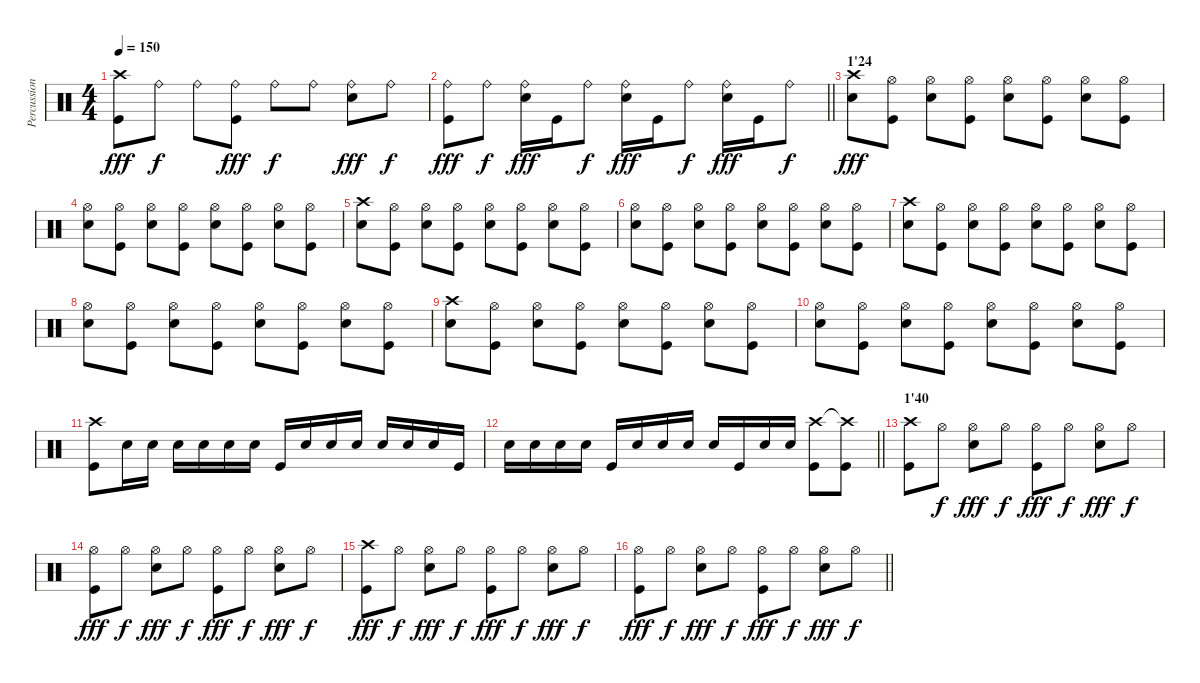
\track ("Percussions" "Percussion") {instrument percussion}
\staff {score}
\articulation defaults
\ts (4 4)
\tempo 150
\clef neutral
\ks c
("Crash high (hit)" "Kick (hit)").8{dy fff} "Ride (bell)".8{dy f} "Ride (bell)".8 ("Ride (bell)" "Kick (hit)").8{dy fff} "Ride (bell)".8{dy f} "Ride (bell)".8 ("Ride (bell)" "Electric Snare (hit)").8{dy fff} "Ride (bell)".8{dy f} |
\barLineRight lightlight
("Ride (bell)" "Kick (hit)").8{dy fff} "Ride (bell)".8{dy f} ("Ride (bell)" "Electric Snare (hit)").16{dy fff} "Kick (hit)".16 "Ride (bell)".8{dy f} ("Ride (bell)" "Electric Snare (hit)").16{dy fff} "Kick (hit)".16 "Ride (bell)".8{dy f} ("Ride (bell)" "Electric Snare (hit)").16{dy fff} "Kick (hit)".16 "Ride (bell)".8{dy f} |
\section ("" "1'24")
("Crash high (hit)" "Electric Snare (hit)").8{dy fff} ("Hi-Hat (open)" "Kick (hit)").8 ("Hi-Hat (open)" "Electric Snare (hit)").8 ("Hi-Hat (open)" "Kick (hit)").8 ("Hi-Hat (open)" "Electric Snare (hit)").8 ("Hi-Hat (open)" "Kick (hit)").8 ("Hi-Hat (open)" "Electric Snare (hit)").8 ("Hi-Hat (open)" "Kick (hit)").8 |
("Hi-Hat (open)" "Electric Snare (hit)").8 ("Hi-Hat (open)" "Kick (hit)").8 ("Hi-Hat (open)" "Electric Snare (hit)").8 ("Hi-Hat (open)" "Kick (hit)").8 ("Hi-Hat (open)" "Electric Snare (hit)").8 ("Hi-Hat (open)" "Kick (hit)").8 ("Hi-Hat (open)" "Electric Snare (hit)").8 ("Hi-Hat (open)" "Kick (hit)").8 |
("Crash high (hit)" "Electric Snare (hit)").8 ("Hi-Hat (open)" "Kick (hit)").8 ("Hi-Hat (open)" "Electric Snare (hit)").8 ("Hi-Hat (open)" "Kick (hit)").8 ("Hi-Hat (open)" "Electric Snare (hit)").8 ("Hi-Hat (open)" "Kick (hit)").8 ("Hi-Hat (open)" "Electric Snare (hit)").8 ("Hi-Hat (open)" "Kick (hit)").8 |
("Hi-Hat (open)" "Electric Snare (hit)").8 ("Hi-Hat (open)" "Kick (hit)").8 ("Hi-Hat (open)" "Electric Snare (hit)").8 ("Hi-Hat (open)" "Kick (hit)").8 ("Hi-Hat (open)" "Electric Snare (hit)").8 ("Hi-Hat (open)" "Kick (hit)").8 ("Hi-Hat (open)" "Electric Snare (hit)").8 ("Hi-Hat (open)" "Kick (hit)").8 |
("Crash high (hit)" "Electric Snare (hit)").8 ("Hi-Hat (open)" "Kick (hit)").8 ("Hi-Hat (open)" "Electric Snare (hit)").8 ("Hi-Hat (open)" "Kick (hit)").8 ("Hi-Hat (open)" "Electric Snare (hit)").8 ("Hi-Hat (open)" "Kick (hit)").8 ("Hi-Hat (open)" "Electric Snare (hit)").8 ("Hi-Hat (open)" "Kick (hit)").8 |
("Hi-Hat (open)" "Electric Snare (hit)").8 ("Hi-Hat (open)" "Kick (hit)").8 ("Hi-Hat (open)" "Electric Snare (hit)").8 ("Hi-Hat (open)" "Kick (hit)").8 ("Hi-Hat (open)" "Electric Snare (hit)").8 ("Hi-Hat (open)" "Kick (hit)").8 ("Hi-Hat (open)" "Electric Snare (hit)").8 ("Hi-Hat (open)" "Kick (hit)").8 |
("Crash high (hit)" "Electric Snare (hit)").8 ("Hi-Hat (open)" "Kick (hit)").8 ("Hi-Hat (open)" "Electric Snare (hit)").8 ("Hi-Hat (open)" "Kick (hit)").8 ("Hi-Hat (open)" "Electric Snare (hit)").8 ("Hi-Hat (open)" "Kick (hit)").8 ("Hi-Hat (open)" "Electric Snare (hit)").8 ("Hi-Hat (open)" "Kick (hit)").8 |
("Hi-Hat (open)" "Electric Snare (hit)").8 ("Hi-Hat (open)" "Kick (hit)").8 ("Hi-Hat (open)" "Electric Snare (hit)").8 ("Hi-Hat (open)" "Kick (hit)").8 ("Hi-Hat (open)" "Electric Snare (hit)").8 ("Hi-Hat (open)" "Kick (hit)").8 ("Hi-Hat (open)" "Electric Snare (hit)").8 ("Hi-Hat (open)" "Kick (hit)").8 |
("Crash high (hit)" "Kick (hit)").8 "Electric Snare (hit)".16 "Electric Snare (hit)".16 "Electric Snare (hit)".16 "Electric Snare (hit)".16 "Electric Snare (hit)".16 "Electric Snare (hit)".16 "Kick (hit)".16 "Electric Snare (hit)".16 "Electric Snare (hit)".16 "Electric Snare (hit)".16 "Electric Snare (hit)".16 "Electric Snare (hit)".16 "Electric Snare (hit)".16 "Kick (hit)".16 |
\barLineRight lightlight "Electric Snare (hit)".16 "Electric Snare (hit)".16 "Electric Snare (hit)".16 "Electric Snare (hit)".16 "Kick (hit)".16 "Electric Snare (hit)".16 "Electric Snare (hit)".16 "Electric Snare (hit)".16 "Electric Snare (hit)".16 "Kick (hit)".16 "Electric Snare (hit)".16 "Electric Snare (hit)".16
("Crash high (hit)" "Kick (hit)").8 ("Crash high (hit)"{t} "Kick (hit)").8 |
\section ("" "1'40")
("Crash high (hit)" "Kick (hit)").8 "Hi-Hat (open)".8{dy f} ("Hi-Hat (open)" "Electric Snare (hit)").8{dy fff} "Hi-Hat (open)".8{dy f} ("Hi-Hat (open)" "Kick (hit)").8{dy fff} "Hi-Hat (open)".8{dy f} ("Hi-Hat (open)" "Electric Snare (hit)").8{dy fff} "Hi-Hat (open)".8{dy f} |
("Hi-Hat (open)" "Kick (hit)").8{dy fff} "Hi-Hat (open)".8{dy f} ("Hi-Hat (open)" "Electric Snare (hit)").8{dy fff} "Hi-Hat (open)".8{dy f} ("Hi-Hat (open)" "Kick (hit)").8{dy fff} "Hi-Hat (open)".8{dy f} ("Hi-Hat (open)" "Electric Snare (hit)").8{dy fff} "Hi-Hat (open)".8{dy f} |
("Crash high (hit)" "Kick (hit)").8{dy fff} "Hi-Hat (open)".8{dy f} ("Hi-Hat (open)" "Electric Snare (hit)").8{dy fff} "Hi-Hat (open)".8{dy f} ("Hi-Hat (open)" "Kick (hit)").8{dy fff} "Hi-Hat (open)".8{dy f} ("Hi-Hat (open)" "Electric Snare (hit)").8{dy fff} "Hi-Hat (open)".8{dy f} |
\barLineRight lightlight
("Hi-Hat (open)" "Kick (hit)").8{dy fff} "Hi-Hat (open)".8{dy f} ("Hi-Hat (open)" "Electric Snare (hit)").8{dy fff} "Hi-Hat (open)".8{dy f} ("Hi-Hat (open)" "Kick (hit)").8{dy fff} "Hi-Hat (open)".8{dy f} ("Hi-Hat (open)" "Electric Snare (hit)").8{dy fff} "Hi-Hat (open)".8{dy f}
